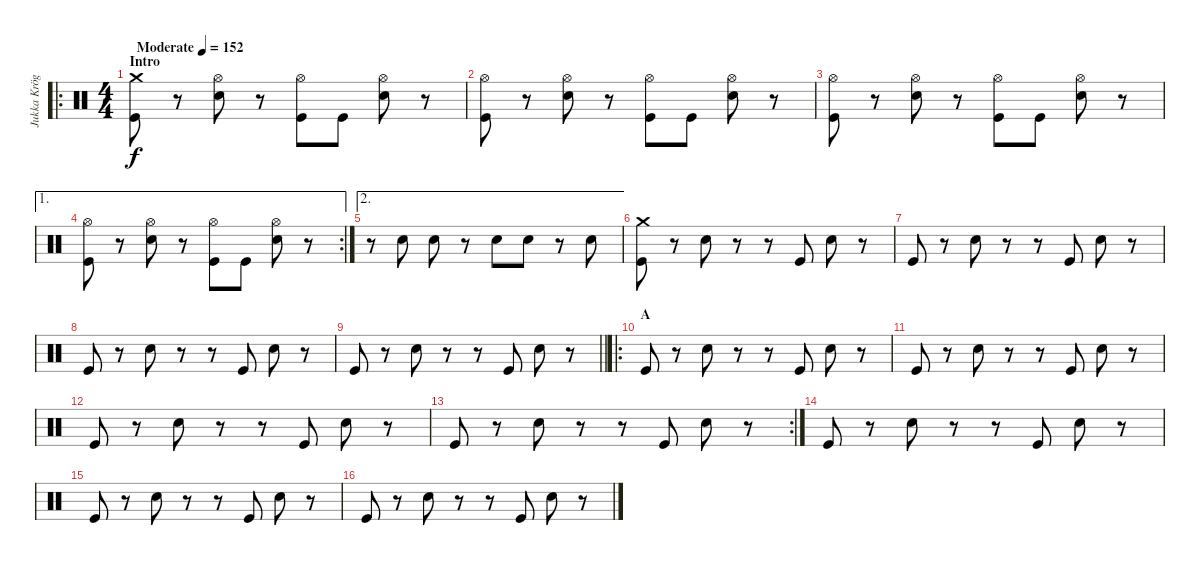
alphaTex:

\track ("Jukka Kröger" "Jukka Krög") {instrument percussion}
\staff {score}
\articulation defaults
\ro
\ts (4 4)
\section ("" "Intro")
\tempo (152 "Moderate")
\clef neutral
\ks aminor
("Crash medium (hit)" "Kick (hit)").8{dy f} r.8 ("Hi-Hat (open)" "Snare (hit) 2").8 r.8 ("Hi-Hat (open)" "Kick (hit)").8 "Kick (hit)".8 ("Hi-Hat (open)" "Snare (hit) 2").8 r.8 |
("Hi-Hat (open)" "Kick (hit)").8 r.8 ("Hi-Hat (open)" "Snare (hit) 2").8 r.8 ("Hi-Hat (open)" "Kick (hit)").8 "Kick (hit)".8 ("Hi-Hat (open)" "Snare (hit) 2").8 r.8 |
("Hi-Hat (open)" "Kick (hit)").8 r.8 ("Hi-Hat (open)" "Snare (hit) 2").8 r.8 ("Hi-Hat (open)" "Kick (hit)").8 "Kick (hit)".8 ("Hi-Hat (open)" "Snare (hit) 2").8 r.8 |
\ae 1
\rc 2
("Hi-Hat (open)" "Kick (hit)").8 r.8 ("Hi-Hat (open)" "Snare (hit) 2").8 r.8 ("Hi-Hat (open)" "Kick (hit)").8 "Kick (hit)".8 ("Hi-Hat (open)" "Snare (hit) 2").8 r.8 |
\ae 2
r.8 "Snare (hit) 2".8 "Snare (hit) 2".8 r.8 "Snare (hit) 2".8 "Snare (hit) 2".8 r.8 "Snare (hit) 2".8 |
("Crash medium (hit)" "Kick (hit)").8 r.8 "Snare (hit) 2".8 r.8 r.8 "Kick (hit)".8 "Snare (hit) 2".8 r.8 |
"Kick (hit)".8 r.8 "Snare (hit) 2".8 r.8 r.8 "Kick (hit)".8 "Snare (hit) 2".8 r.8 |
"Kick (hit)".8 r.8 "Snare (hit) 2".8 r.8 r.8 "Kick (hit)".8 "Snare (hit) 2".8 r.8 |
\barLineRight lightlight "Kick (hit)".8
r.8 "Snare (hit) 2".8 r.8 r.8 "Kick (hit)".8 "Snare (hit) 2".8 r.8 |
\ro
\section ("" "A")
"Kick (hit)".8 r.8 "Snare (hit) 2".8 r.8 r.8 "Kick (hit)".8 "Snare (hit) 2".8 r.8 |
"Kick (hit)".8 r.8 "Snare (hit) 2".8 r.8 r.8 "Kick (hit)".8 "Snare (hit) 2".8 r.8 |
"Kick (hit)".8 r.8 "Snare (hit) 2".8 r.8 r.8 "Kick (hit)".8 "Snare (hit) 2".8 r.8 |
\rc 2 "Kick (hit)".8
r.8 "Snare (hit) 2".8 r.8 r.8 "Kick (hit)".8 "Snare (hit) 2".8 r.8 |
"Kick (hit)".8 r.8 "Snare (hit) 2".8 r.8 r.8 "Kick (hit)".8 "Snare (hit) 2".8 r.8 |
"Kick (hit)".8 r.8 "Snare (hit) 2".8 r.8 r.8 "Kick (hit)".8 "Snare (hit) 2".8 r.8 |
"Kick (hit)".8 r.8 "Snare (hit) 2".8 r.8 r.8 "Kick (hit)".8 "Snare (hit) 2".8 r.8
